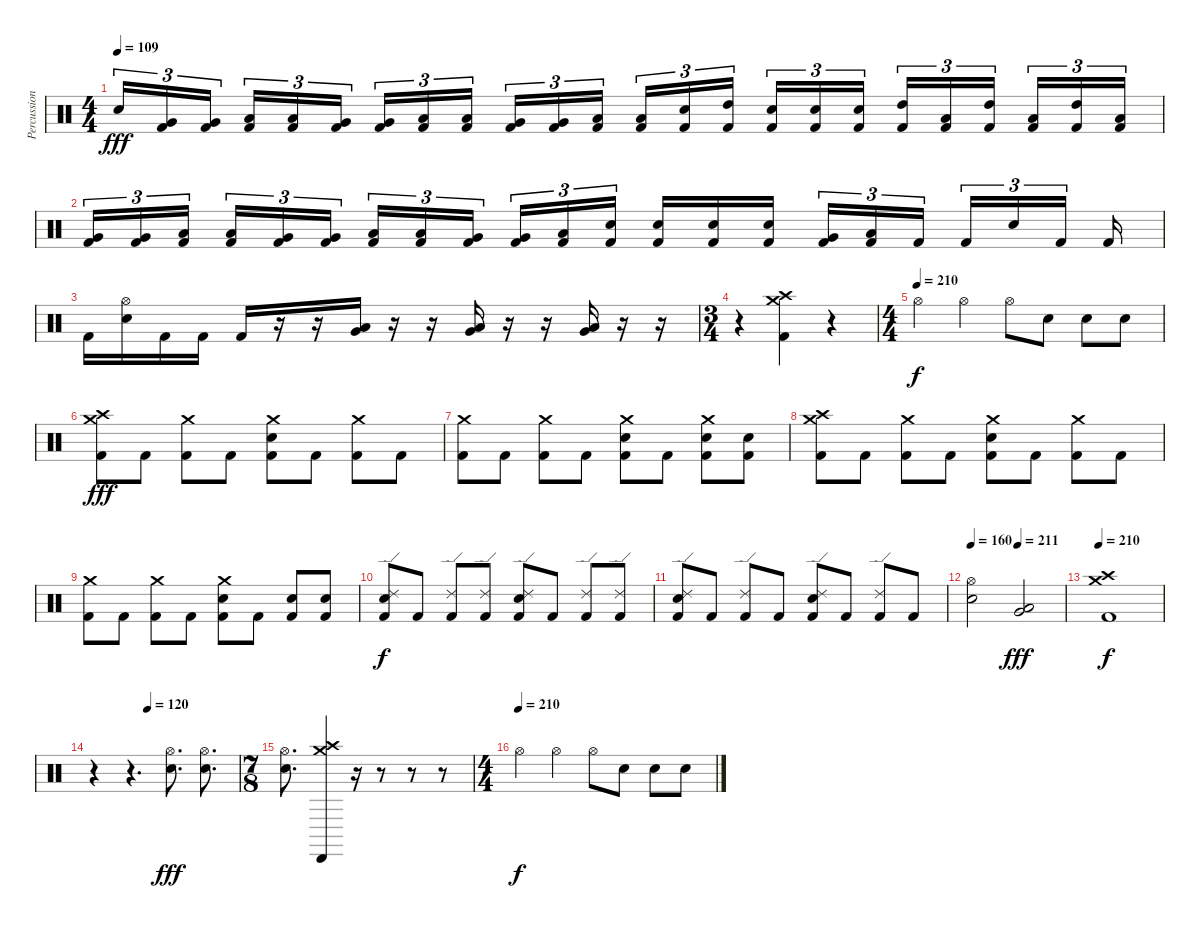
\track ("Percussion" "Percussion") {instrument percussion}
\staff {score}
\articulation defaults
\ts (4 4)
\tempo 109
\clef neutral
\ks c "Electric Snare (hit)".16{tu (3 2) dy fff}
("Very Low Tom (hit)" "Kick (hit) 2").16{tu (3 2)} ("Very Low Tom (hit)" "Kick (hit) 2").16{tu (3 2) beam splitsecondary} ("Low Floor Tom (hit)" "Kick (hit) 2").16{tu (3 2)} ("Low Floor Tom (hit)" "Kick (hit) 2").16{tu (3 2)} ("Very Low Tom (hit)" "Kick (hit) 2").16{tu (3 2)} ("Very Low Tom (hit)" "Kick (hit) 2").16{tu (3 2)} ("Low Floor Tom (hit)" "Kick (hit) 2").16{tu (3 2)} ("Low Floor Tom (hit)" "Kick (hit) 2").16{tu (3 2) beam splitsecondary} ("Very Low Tom (hit)" "Kick (hit) 2").16{tu (3 2)} ("Very Low Tom (hit)" "Kick (hit) 2").16{tu (3 2)} ("Low Floor Tom (hit)" "Kick (hit) 2").16{tu (3 2)} ("Low Floor Tom (hit)" "Kick (hit) 2").16{tu (3 2)} ("Electric Snare (hit)" "Kick (hit) 2").16{tu (3 2)} ("High Tom (hit)" "Kick (hit) 2").16{tu (3 2) beam splitsecondary} ("Electric Snare (hit)" "Kick (hit) 2").16{tu (3 2)} ("Electric Snare (hit)" "Kick (hit) 2").16{tu (3 2)} ("Electric Snare (hit)" "Kick (hit) 2").16{tu (3 2)} ("High Tom (hit)" "Kick (hit) 2").16{tu (3 2)} ("Low Tom (hit)" "Kick (hit) 2").16{tu (3 2)} ("High Tom (hit)" "Kick (hit) 2").16{tu (3 2) beam splitsecondary} ("Low Tom (hit)" "Kick (hit) 2").16{tu (3 2)} ("High Tom (hit)" "Kick (hit) 2").16{tu (3 2)} ("Low Tom (hit)" "Kick (hit) 2").16{tu (3 2)} |
("Very Low Tom (hit)" "Kick (hit) 2").16{tu (3 2)} ("Very Low Tom (hit)" "Kick (hit) 2").16{tu (3 2)} ("Low Floor Tom (hit)" "Kick (hit) 2").16{tu (3 2) beam splitsecondary} ("Low Floor Tom (hit)" "Kick (hit) 2").16{tu (3 2)} ("Very Low Tom (hit)" "Kick (hit) 2").16{tu (3 2)} ("Very Low Tom (hit)" "Kick (hit) 2").16{tu (3 2)} ("Low Floor Tom (hit)" "Kick (hit) 2").16{tu (3 2)} ("Low Floor Tom (hit)" "Kick (hit) 2").16{tu (3 2)} ("Very Low Tom (hit)" "Kick (hit) 2").16{tu (3 2) beam splitsecondary} ("Very Low Tom (hit)" "Kick (hit) 2").16{tu (3 2)} ("Low Floor Tom (hit)" "Kick (hit) 2").16{tu (3 2)} ("Electric Snare (hit)" "Kick (hit) 2").16{tu (3 2)} ("Electric Snare (hit)" "Kick (hit) 2").16 ("Electric Snare (hit)" "Kick (hit) 2").16 ("Electric Snare (hit)" "Kick (hit) 2").16{beam splitsecondary} ("Very Low Tom (hit)" "Kick (hit) 2").16{tu (3 2)} ("Low Floor Tom (hit)" "Kick (hit) 2").16{tu (3 2)} "Kick (hit) 2".16{tu (3 2) beam splitsecondary} "Kick (hit) 2".16{tu (3 2)} "Electric Snare (hit)".16{tu (3 2)} "Kick (hit) 2".16{tu (3 2) beam splitsecondary} "Kick (hit) 2".16 |
"Kick (hit) 2".16 ("Hi-Hat (open)" "Electric Snare (hit)").16 "Kick (hit) 2".16 "Kick (hit) 2".16 "Kick (hit) 2".16 r.16 r.16 ("Very Low Tom (hit)" "Low Floor Tom (hit)").16 r.16 r.16 ("Very Low Tom (hit)" "Low Floor Tom (hit)").16 r.16 r.16 ("Very Low Tom (hit)" "Low Floor Tom (hit)").16 r.16 r.16 |
\ts (3 4)
r.4 ("Crash high (hit)" "Crash medium (hit)" "Kick (hit) 2").4 r.4 |
\ts (4 4)
\tempo (210)
"Hi-Hat (open)".4{dy f} "Hi-Hat (open)".4 "Hi-Hat (open)".8 "Electric Snare (hit)".8 "Electric Snare (hit)".8 "Electric Snare (hit)".8 |
("Crash medium (hit)" "Crash high (hit)" "Kick (hit) 2").8{dy fff} "Kick (hit) 2".8 ("Crash medium (hit)" "Kick (hit) 2").8 "Kick (hit) 2".8 ("Crash medium (hit)" "Electric Snare (hit)" "Kick (hit) 2").8 "Kick (hit) 2".8 ("Crash medium (hit)" "Kick (hit) 2").8 "Kick (hit) 2".8 |
("Crash medium (hit)" "Kick (hit) 2").8 "Kick (hit) 2".8 ("Crash medium (hit)" "Kick (hit) 2").8 "Kick (hit) 2".8 ("Crash medium (hit)" "Electric Snare (hit)" "Kick (hit) 2").8 "Kick (hit) 2".8 ("Crash medium (hit)" "Electric Snare (hit)" "Kick (hit) 2").8 ("Electric Snare (hit)" "Kick (hit) 2").8 |
("Crash medium (hit)" "Crash high (hit)" "Kick (hit) 2").8 "Kick (hit) 2".8 ("Crash medium (hit)" "Kick (hit) 2").8 "Kick (hit) 2".8 ("Crash medium (hit)" "Electric Snare (hit)" "Kick (hit) 2").8 "Kick (hit) 2".8 ("Crash medium (hit)" "Kick (hit) 2").8 "Kick (hit) 2".8 |
("Crash medium (hit)" "Kick (hit) 2").8 "Kick (hit) 2".8 ("Crash medium (hit)" "Kick (hit) 2").8 "Kick (hit) 2".8 ("Crash medium (hit)" "Electric Snare (hit)" "Kick (hit) 2").8 "Kick (hit) 2".8 ("Electric Snare (hit)" "Kick (hit) 2").8 ("Electric Snare (hit)" "Kick (hit) 2").8 |
("Ride (edge) 2" "Electric Snare (hit)" "Kick (hit) 2").8{dy f} "Kick (hit) 2".8 ("Ride (edge) 2" "Kick (hit) 2").8 ("Ride (edge) 2" "Kick (hit) 2").8 ("Ride (edge) 2" "Electric Snare (hit)" "Kick (hit) 2").8 "Kick (hit) 2".8 ("Ride (edge) 2" "Kick (hit) 2").8 ("Ride (edge) 2" "Kick (hit) 2").8 |
("Ride (edge) 2" "Electric Snare (hit)" "Kick (hit) 2").8 "Kick (hit) 2".8 ("Ride (edge) 2" "Kick (hit) 2").8 "Kick (hit) 2".8 ("Ride (edge) 2" "Electric Snare (hit)" "Kick (hit) 2").8 "Kick (hit) 2".8 ("Ride (edge) 2" "Kick (hit) 2").8 "Kick (hit) 2".8 |
\tempo 160
\tempo (211 0.5)
("Hi-Hat (open)" "Electric Snare (hit)").2 ("Very Low Tom (hit)" "Low Floor Tom (hit)").2{dy fff} |
\tempo 150
\tempo 210
("Crash medium (hit)" "Crash high (hit)" "Kick (hit) 2").1{dy f} |
\tempo (120 0.375)
r.4 r.4{d} ("Hi-Hat (open)" "Electric Snare (hit)").8{d dy fff} ("Hi-Hat (open)" "Electric Snare (hit)").8{d} |
\ts (7 8)
("Hi-Hat (open)" "Electric Snare (hit)").8{d} ("Crash high (hit)" "Crash medium (hit)" "Cabasa (hit)").4 r.16 r.8 r.8 r.8 |
\ts (4 4)
\tempo (210)
"Hi-Hat (open)".4{dy f} "Hi-Hat (open)".4 "Hi-Hat (open)".8 "Electric Snare (hit)".8 "Electric Snare (hit)".8 "Electric Snare (hit)".8
